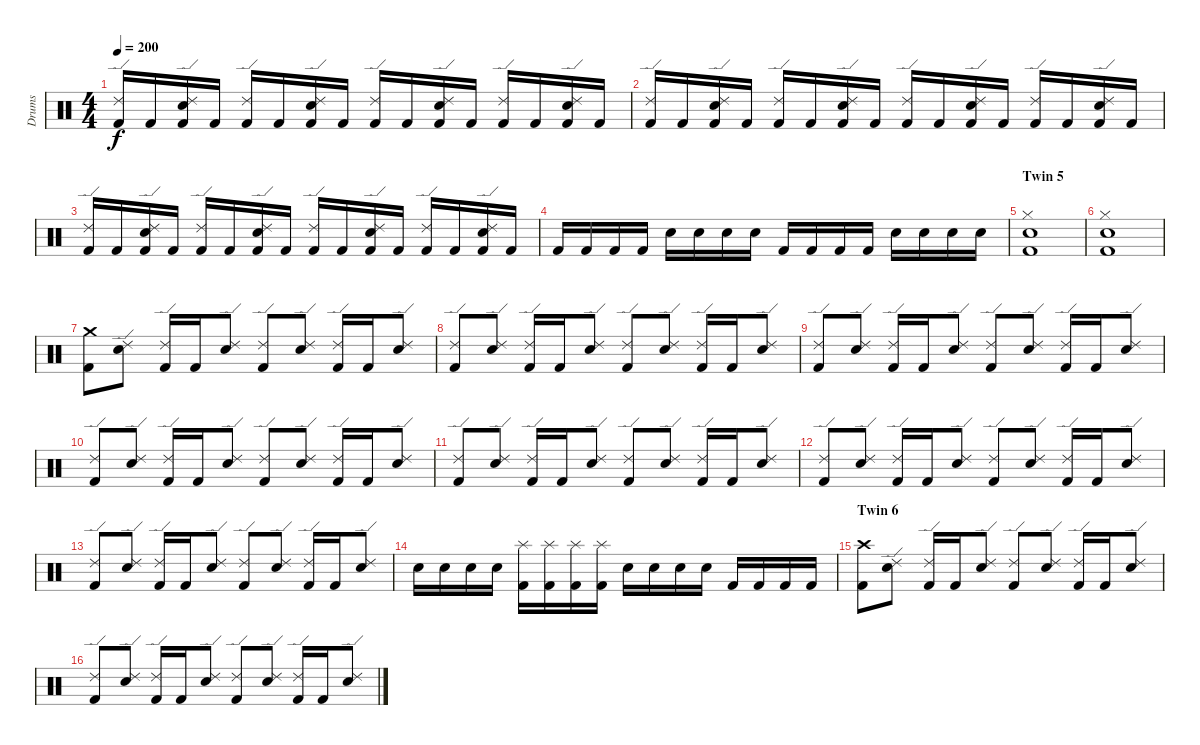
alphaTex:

\track ("Drums" "Drums") {instrument percussion}
\staff {score}
\articulation defaults
\ts (4 4)
\tempo 200
\clef neutral
\ks c
("Kick (hit) 2" "Ride (edge) 2").16{dy f} "Kick (hit) 2".16 ("Kick (hit) 2" "Snare (hit) 2" "Ride (edge) 2").16 "Kick (hit) 2".16 ("Kick (hit) 2" "Ride (edge) 2").16 "Kick (hit) 2".16 ("Kick (hit) 2" "Snare (hit) 2" "Ride (edge) 2").16 "Kick (hit) 2".16 ("Kick (hit) 2" "Ride (edge) 2").16 "Kick (hit) 2".16 ("Kick (hit) 2" "Snare (hit) 2" "Ride (edge) 2").16 "Kick (hit) 2".16 ("Kick (hit) 2" "Ride (edge) 2").16 "Kick (hit) 2".16 ("Kick (hit) 2" "Snare (hit) 2" "Ride (edge) 2").16 "Kick (hit) 2".16 |
("Kick (hit) 2" "Ride (edge) 2").16 "Kick (hit) 2".16 ("Kick (hit) 2" "Snare (hit) 2" "Ride (edge) 2").16 "Kick (hit) 2".16 ("Kick (hit) 2" "Ride (edge) 2").16 "Kick (hit) 2".16 ("Kick (hit) 2" "Snare (hit) 2" "Ride (edge) 2").16 "Kick (hit) 2".16 ("Kick (hit) 2" "Ride (edge) 2").16 "Kick (hit) 2".16 ("Kick (hit) 2" "Snare (hit) 2" "Ride (edge) 2").16 "Kick (hit) 2".16 ("Kick (hit) 2" "Ride (edge) 2").16 "Kick (hit) 2".16 ("Kick (hit) 2" "Snare (hit) 2" "Ride (edge) 2").16 "Kick (hit) 2".16 |
("Kick (hit) 2" "Ride (edge) 2").16 "Kick (hit) 2".16 ("Kick (hit) 2" "Snare (hit) 2" "Ride (edge) 2").16 "Kick (hit) 2".16 ("Kick (hit) 2" "Ride (edge) 2").16 "Kick (hit) 2".16 ("Kick (hit) 2" "Snare (hit) 2" "Ride (edge) 2").16 "Kick (hit) 2".16 ("Kick (hit) 2" "Ride (edge) 2").16 "Kick (hit) 2".16 ("Kick (hit) 2" "Snare (hit) 2" "Ride (edge) 2").16 "Kick (hit) 2".16 ("Kick (hit) 2" "Ride (edge) 2").16 "Kick (hit) 2".16 ("Kick (hit) 2" "Snare (hit) 2" "Ride (edge) 2").16 "Kick (hit) 2".16 |
"Kick (hit) 2".16 "Kick (hit) 2".16 "Kick (hit) 2".16 "Kick (hit) 2".16 "Snare (hit) 2".16 "Snare (hit) 2".16 "Snare (hit) 2".16 "Snare (hit) 2".16 "Kick (hit) 2".16 "Kick (hit) 2".16 "Kick (hit) 2".16 "Kick (hit) 2".16 "Snare (hit) 2".16 "Snare (hit) 2".16 "Snare (hit) 2".16 "Snare (hit) 2".16 |
\section ("" "Twin 5")
("Kick (hit) 2" "Snare (hit) 2" "Hi-Hat (closed)").1 |
("Kick (hit) 2" "Snare (hit) 2" "Hi-Hat (closed)").1 |
("Kick (hit) 2" "Crash medium (hit)").8 ("Snare (hit) 2" "Ride (edge) 2").8 ("Kick (hit) 2" "Ride (edge) 2").16 "Kick (hit) 2".16 ("Snare (hit) 2" "Ride (edge) 2").8 ("Kick (hit) 2" "Ride (edge) 2").8 ("Snare (hit) 2" "Ride (edge) 2").8 ("Kick (hit) 2" "Ride (edge) 2").16 "Kick (hit) 2".16 ("Snare (hit) 2" "Ride (edge) 2").8 |
("Kick (hit) 2" "Ride (edge) 2").8 ("Snare (hit) 2" "Ride (edge) 2").8 ("Kick (hit) 2" "Ride (edge) 2").16 "Kick (hit) 2".16 ("Snare (hit) 2" "Ride (edge) 2").8 ("Kick (hit) 2" "Ride (edge) 2").8 ("Snare (hit) 2" "Ride (edge) 2").8 ("Kick (hit) 2" "Ride (edge) 2").16 "Kick (hit) 2".16 ("Snare (hit) 2" "Ride (edge) 2").8 |
("Kick (hit) 2" "Ride (edge) 2").8 ("Snare (hit) 2" "Ride (edge) 2").8 ("Kick (hit) 2" "Ride (edge) 2").16 "Kick (hit) 2".16 ("Snare (hit) 2" "Ride (edge) 2").8 ("Kick (hit) 2" "Ride (edge) 2").8 ("Snare (hit) 2" "Ride (edge) 2").8 ("Kick (hit) 2" "Ride (edge) 2").16 "Kick (hit) 2".16 ("Snare (hit) 2" "Ride (edge) 2").8 |
("Kick (hit) 2" "Ride (edge) 2").8 ("Snare (hit) 2" "Ride (edge) 2").8 ("Kick (hit) 2" "Ride (edge) 2").16 "Kick (hit) 2".16 ("Snare (hit) 2" "Ride (edge) 2").8 ("Kick (hit) 2" "Ride (edge) 2").8 ("Snare (hit) 2" "Ride (edge) 2").8 ("Kick (hit) 2" "Ride (edge) 2").16 "Kick (hit) 2".16 ("Snare (hit) 2" "Ride (edge) 2").8 |
("Kick (hit) 2" "Ride (edge) 2").8 ("Snare (hit) 2" "Ride (edge) 2").8 ("Kick (hit) 2" "Ride (edge) 2").16 "Kick (hit) 2".16 ("Snare (hit) 2" "Ride (edge) 2").8 ("Kick (hit) 2" "Ride (edge) 2").8 ("Snare (hit) 2" "Ride (edge) 2").8 ("Kick (hit) 2" "Ride (edge) 2").16 "Kick (hit) 2".16 ("Snare (hit) 2" "Ride (edge) 2").8 |
("Kick (hit) 2" "Ride (edge) 2").8 ("Snare (hit) 2" "Ride (edge) 2").8 ("Kick (hit) 2" "Ride (edge) 2").16 "Kick (hit) 2".16 ("Snare (hit) 2" "Ride (edge) 2").8 ("Kick (hit) 2" "Ride (edge) 2").8 ("Snare (hit) 2" "Ride (edge) 2").8 ("Kick (hit) 2" "Ride (edge) 2").16 "Kick (hit) 2".16 ("Snare (hit) 2" "Ride (edge) 2").8 |
("Kick (hit) 2" "Ride (edge) 2").8 ("Snare (hit) 2" "Ride (edge) 2").8 ("Kick (hit) 2" "Ride (edge) 2").16 "Kick (hit) 2".16 ("Snare (hit) 2" "Ride (edge) 2").8 ("Kick (hit) 2" "Ride (edge) 2").8 ("Snare (hit) 2" "Ride (edge) 2").8 ("Kick (hit) 2" "Ride (edge) 2").16 "Kick (hit) 2".16 ("Snare (hit) 2" "Ride (edge) 2").8 |
"Snare (hit) 2".16 "Snare (hit) 2".16 "Snare (hit) 2".16 "Snare (hit) 2".16 ("Kick (hit) 2" "Splash (hit)").16 ("Kick (hit) 2" "Splash (hit)").16 ("Kick (hit) 2" "Splash (hit)").16 ("Kick (hit) 2" "Splash (hit)").16 "Snare (hit) 2".16 "Snare (hit) 2".16 "Snare (hit) 2".16 "Snare (hit) 2".16 "Kick (hit) 2".16 "Kick (hit) 2".16 "Kick (hit) 2".16 "Kick (hit) 2".16 |
\section ("" "Twin 6")
("Kick (hit) 2" "Crash high (hit)").8 ("Snare (hit) 2" "Ride (edge) 2").8 ("Kick (hit) 2" "Ride (edge) 2").16 "Kick (hit) 2".16 ("Snare (hit) 2" "Ride (edge) 2").8 ("Kick (hit) 2" "Ride (edge) 2").8 ("Snare (hit) 2" "Ride (edge) 2").8 ("Kick (hit) 2" "Ride (edge) 2").16 "Kick (hit) 2".16 ("Snare (hit) 2" "Ride (edge) 2").8 |
("Kick (hit) 2" "Ride (edge) 2").8 ("Snare (hit) 2" "Ride (edge) 2").8 ("Kick (hit) 2" "Ride (edge) 2").16 "Kick (hit) 2".16 ("Snare (hit) 2" "Ride (edge) 2").8 ("Kick (hit) 2" "Ride (edge) 2").8 ("Snare (hit) 2" "Ride (edge) 2").8 ("Kick (hit) 2" "Ride (edge) 2").16 "Kick (hit) 2".16 ("Snare (hit) 2" "Ride (edge) 2").8
